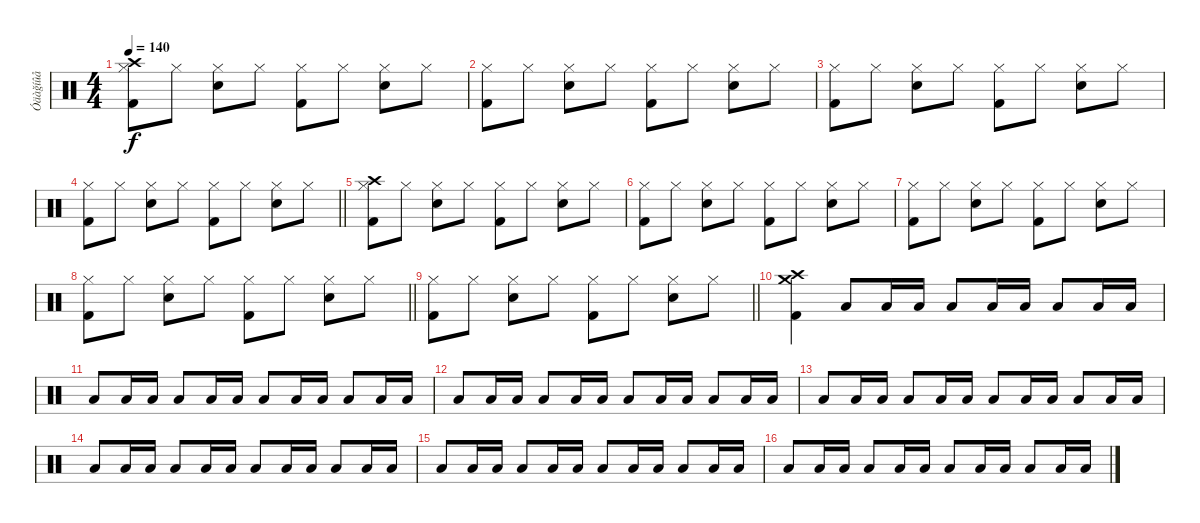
\track ("Óäàğíûå" "Óäàğíûå") {instrument percussion}
\staff {score}
\articulation defaults
\ts (4 4)
\tempo 140
\clef neutral
\ks c
("Hi-Hat (closed)" "Kick (hit) 2" "Crash high (hit)").8{dy f} "Hi-Hat (closed)".8 ("Hi-Hat (closed)" "Snare (hit) 2").8 "Hi-Hat (closed)".8 ("Hi-Hat (closed)" "Kick (hit) 2").8 "Hi-Hat (closed)".8 ("Hi-Hat (closed)" "Snare (hit) 2").8 "Hi-Hat (closed)".8 |
("Hi-Hat (closed)" "Kick (hit) 2").8 "Hi-Hat (closed)".8 ("Hi-Hat (closed)" "Snare (hit) 2").8 "Hi-Hat (closed)".8 ("Hi-Hat (closed)" "Kick (hit) 2").8 "Hi-Hat (closed)".8 ("Hi-Hat (closed)" "Snare (hit) 2").8 "Hi-Hat (closed)".8 |
("Hi-Hat (closed)" "Kick (hit) 2").8 "Hi-Hat (closed)".8 ("Hi-Hat (closed)" "Snare (hit) 2").8 "Hi-Hat (closed)".8 ("Hi-Hat (closed)" "Kick (hit) 2").8 "Hi-Hat (closed)".8 ("Hi-Hat (closed)" "Snare (hit) 2").8 "Hi-Hat (closed)".8 |
\barLineRight lightlight
("Hi-Hat (closed)" "Kick (hit) 2").8 "Hi-Hat (closed)".8 ("Hi-Hat (closed)" "Snare (hit) 2").8 "Hi-Hat (closed)".8 ("Hi-Hat (closed)" "Kick (hit) 2").8 "Hi-Hat (closed)".8 ("Hi-Hat (closed)" "Snare (hit) 2").8 "Hi-Hat (closed)".8 |
("Hi-Hat (closed)" "Kick (hit) 2" "Crash high (hit)").8 "Hi-Hat (closed)".8 ("Hi-Hat (closed)" "Snare (hit) 2").8 "Hi-Hat (closed)".8 ("Hi-Hat (closed)" "Kick (hit) 2").8 "Hi-Hat (closed)".8 ("Hi-Hat (closed)" "Snare (hit) 2").8 "Hi-Hat (closed)".8 |
("Hi-Hat (closed)" "Kick (hit) 2").8 "Hi-Hat (closed)".8 ("Hi-Hat (closed)" "Snare (hit) 2").8 "Hi-Hat (closed)".8 ("Hi-Hat (closed)" "Kick (hit) 2").8 "Hi-Hat (closed)".8 ("Hi-Hat (closed)" "Snare (hit) 2").8 "Hi-Hat (closed)".8 |
("Hi-Hat (closed)" "Kick (hit) 2").8 "Hi-Hat (closed)".8 ("Hi-Hat (closed)" "Snare (hit) 2").8 "Hi-Hat (closed)".8 ("Hi-Hat (closed)" "Kick (hit) 2").8 "Hi-Hat (closed)".8 ("Hi-Hat (closed)" "Snare (hit) 2").8 "Hi-Hat (closed)".8 |
\barLineRight lightlight
("Hi-Hat (closed)" "Kick (hit) 2").8 "Hi-Hat (closed)".8 ("Hi-Hat (closed)" "Snare (hit) 2").8 "Hi-Hat (closed)".8 ("Hi-Hat (closed)" "Kick (hit) 2").8 "Hi-Hat (closed)".8 ("Hi-Hat (closed)" "Snare (hit) 2").8 "Hi-Hat (closed)".8 |
\barLineRight lightlight
("Hi-Hat (closed)" "Kick (hit) 2").8 "Hi-Hat (closed)".8 ("Hi-Hat (closed)" "Snare (hit) 2").8 "Hi-Hat (closed)".8 ("Hi-Hat (closed)" "Kick (hit) 2").8 "Hi-Hat (closed)".8 ("Hi-Hat (closed)" "Snare (hit) 2").8 "Hi-Hat (closed)".8 |
("Crash high (hit)" "Kick (hit) 2" "Crash medium (hit)").4 "Low Tom (hit)".8 "Low Tom (hit)".16 "Low Tom (hit)".16 "Low Tom (hit)".8 "Low Tom (hit)".16 "Low Tom (hit)".16 "Low Tom (hit)".8 "Low Tom (hit)".16 "Low Tom (hit)".16 |
"Low Tom (hit)".8 "Low Tom (hit)".16 "Low Tom (hit)".16 "Low Tom (hit)".8 "Low Tom (hit)".16 "Low Tom (hit)".16 "Low Tom (hit)".8 "Low Tom (hit)".16 "Low Tom (hit)".16 "Low Tom (hit)".8 "Low Tom (hit)".16 "Low Tom (hit)".16 |
"Low Tom (hit)".8 "Low Tom (hit)".16 "Low Tom (hit)".16 "Low Tom (hit)".8 "Low Tom (hit)".16 "Low Tom (hit)".16 "Low Tom (hit)".8 "Low Tom (hit)".16 "Low Tom (hit)".16 "Low Tom (hit)".8 "Low Tom (hit)".16 "Low Tom (hit)".16 |
"Low Tom (hit)".8 "Low Tom (hit)".16 "Low Tom (hit)".16 "Low Tom (hit)".8 "Low Tom (hit)".16 "Low Tom (hit)".16 "Low Tom (hit)".8 "Low Tom (hit)".16 "Low Tom (hit)".16 "Low Tom (hit)".8 "Low Tom (hit)".16 "Low Tom (hit)".16 |
"Low Tom (hit)".8 "Low Tom (hit)".16 "Low Tom (hit)".16 "Low Tom (hit)".8 "Low Tom (hit)".16 "Low Tom (hit)".16 "Low Tom (hit)".8 "Low Tom (hit)".16 "Low Tom (hit)".16 "Low Tom (hit)".8 "Low Tom (hit)".16 "Low Tom (hit)".16 |
"Low Tom (hit)".8 "Low Tom (hit)".16 "Low Tom (hit)".16 "Low Tom (hit)".8 "Low Tom (hit)".16 "Low Tom (hit)".16 "Low Tom (hit)".8 "Low Tom (hit)".16 "Low Tom (hit)".16 "Low Tom (hit)".8 "Low Tom (hit)".16 "Low Tom (hit)".16 |
"Low Tom (hit)".8 "Low Tom (hit)".16 "Low Tom (hit)".16 "Low Tom (hit)".8 "Low Tom (hit)".16 "Low Tom (hit)".16 "Low Tom (hit)".8 "Low Tom (hit)".16 "Low Tom (hit)".16 "Low Tom (hit)".8 "Low Tom (hit)".16 "Low Tom (hit)".16
